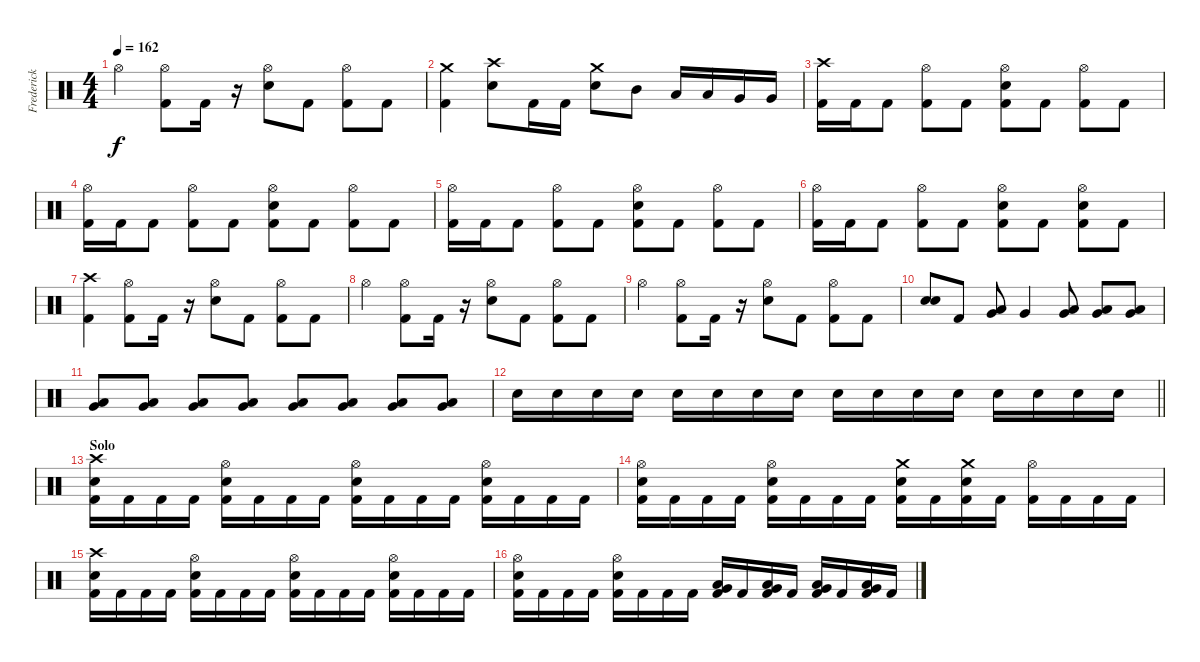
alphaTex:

\track ("Frederick Ehmke" "Frederick ") {instrument percussion}
\staff {score}
\articulation defaults
\ts (4 4)
\tempo 162
\clef neutral
\ks c "Hi-Hat (open)".4{dy f}
("Hi-Hat (open)" "Kick (hit) 2").8 "Kick (hit) 2".16 r.16 ("Electric Snare (hit)" "Hi-Hat (open)").8 "Kick (hit) 2".8 ("Hi-Hat (open)" "Kick (hit) 2").8 "Kick (hit) 2".8 |
("Crash medium (hit)" "Kick (hit) 2").4 ("Electric Snare (hit)" "Crash high (hit)").8 "Kick (hit) 2".16 "Kick (hit) 2".16 ("Electric Snare (hit)" "Crash medium (hit)").8 "Mid Tom (hit)".8 "Low Tom (hit)".16 "Low Tom (hit)".16 "Very Low Tom (hit)".16 "Very Low Tom (hit)".16 |
("Crash high (hit)" "Kick (hit) 2").16 "Kick (hit) 2".16 "Kick (hit) 2".8 ("Hi-Hat (open)" "Kick (hit) 2").8 "Kick (hit) 2".8 ("Electric Snare (hit)" "Hi-Hat (open)" "Kick (hit) 2").8 "Kick (hit) 2".8 ("Hi-Hat (open)" "Kick (hit) 2").8 "Kick (hit) 2".8 |
("Hi-Hat (open)" "Kick (hit) 2").16 "Kick (hit) 2".16 "Kick (hit) 2".8 ("Hi-Hat (open)" "Kick (hit) 2").8 "Kick (hit) 2".8 ("Electric Snare (hit)" "Hi-Hat (open)" "Kick (hit) 2").8 "Kick (hit) 2".8 ("Hi-Hat (open)" "Kick (hit) 2").8 "Kick (hit) 2".8 |
("Hi-Hat (open)" "Kick (hit) 2").16 "Kick (hit) 2".16 "Kick (hit) 2".8 ("Hi-Hat (open)" "Kick (hit) 2").8 "Kick (hit) 2".8 ("Electric Snare (hit)" "Hi-Hat (open)" "Kick (hit) 2").8 "Kick (hit) 2".8 ("Hi-Hat (open)" "Kick (hit) 2").8 "Kick (hit) 2".8 |
("Hi-Hat (open)" "Kick (hit) 2").16 "Kick (hit) 2".16 "Kick (hit) 2".8 ("Hi-Hat (open)" "Kick (hit) 2").8 "Kick (hit) 2".8 ("Electric Snare (hit)" "Hi-Hat (open)" "Kick (hit) 2").8 "Kick (hit) 2".8 ("Electric Snare (hit)" "Hi-Hat (open)" "Kick (hit) 2").8 "Kick (hit) 2".8 |
("Crash high (hit)" "Kick (hit) 2").4 ("Hi-Hat (open)" "Kick (hit) 2").8 "Kick (hit) 2".16 r.16 ("Electric Snare (hit)" "Hi-Hat (open)").8 "Kick (hit) 2".8 ("Hi-Hat (open)" "Kick (hit) 2").8 "Kick (hit) 2".8 |
"Hi-Hat (open)".4 ("Hi-Hat (open)" "Kick (hit) 2").8 "Kick (hit) 2".16 r.16 ("Electric Snare (hit)" "Hi-Hat (open)").8 "Kick (hit) 2".8 ("Hi-Hat (open)" "Kick (hit) 2").8 "Kick (hit) 2".8 |
"Hi-Hat (open)".4 ("Hi-Hat (open)" "Kick (hit) 2").8 "Kick (hit) 2".16 r.16 ("Electric Snare (hit)" "Hi-Hat (open)").8 "Kick (hit) 2".8 ("Hi-Hat (open)" "Kick (hit) 2").8 "Kick (hit) 2".8 |
("Electric Snare (hit)" "Electric Snare (hit)").8 "Kick (hit) 2".8 ("Very Low Tom (hit)" "Low Tom (hit)").8 "Very Low Tom (hit)".4 ("Very Low Tom (hit)" "Low Tom (hit)").8 ("Very Low Tom (hit)" "Low Tom (hit)").8 ("Very Low Tom (hit)" "Low Tom (hit)").8 |
("Low Floor Tom (hit)" "Very Low Tom (hit)").8 ("Low Floor Tom (hit)" "Very Low Tom (hit)").8 ("Low Floor Tom (hit)" "Very Low Tom (hit)").8 ("Low Floor Tom (hit)" "Very Low Tom (hit)").8 ("Low Floor Tom (hit)" "Very Low Tom (hit)").8 ("Low Floor Tom (hit)" "Very Low Tom (hit)").8 ("Low Floor Tom (hit)" "Very Low Tom (hit)").8 ("Low Floor Tom (hit)" "Very Low Tom (hit)").8 |
\barLineRight lightlight "Electric Snare (hit)".16 "Electric Snare (hit)".16 "Electric Snare (hit)".16 "Electric Snare (hit)".16 "Electric Snare (hit)".16 "Electric Snare (hit)".16 "Electric Snare (hit)".16 "Electric Snare (hit)".16 "Electric Snare (hit)".16 "Electric Snare (hit)".16 "Electric Snare (hit)".16 "Electric Snare (hit)".16 "Electric Snare (hit)".16 "Electric Snare (hit)".16 "Electric Snare (hit)".16 "Electric Snare (hit)".16
|
\section ("" "Solo")
("Electric Snare (hit)" "Crash high (hit)" "Kick (hit) 2").16 "Kick (hit) 2".16 "Kick (hit) 2".16 "Kick (hit) 2".16 ("Electric Snare (hit)" "Hi-Hat (open)" "Kick (hit) 2").16 "Kick (hit) 2".16 "Kick (hit) 2".16 "Kick (hit) 2".16 ("Electric Snare (hit)" "Hi-Hat (open)" "Kick (hit) 2").16 "Kick (hit) 2".16 "Kick (hit) 2".16 "Kick (hit) 2".16 ("Electric Snare (hit)" "Hi-Hat (open)" "Kick (hit) 2").16 "Kick (hit) 2".16 "Kick (hit) 2".16 "Kick (hit) 2".16 |
("Electric Snare (hit)" "Hi-Hat (open)" "Kick (hit) 2").16 "Kick (hit) 2".16 "Kick (hit) 2".16 "Kick (hit) 2".16 ("Electric Snare (hit)" "Hi-Hat (open)" "Kick (hit) 2").16 "Kick (hit) 2".16 "Kick (hit) 2".16 "Kick (hit) 2".16 ("Electric Snare (hit)" "Crash medium (hit)" "Kick (hit) 2").16 "Kick (hit) 2".16 ("Electric Snare (hit)" "Crash medium (hit)" "Kick (hit) 2").16 "Kick (hit) 2".16 ("Hi-Hat (open)" "Kick (hit) 2").16 "Kick (hit) 2".16 "Kick (hit) 2".16 "Kick (hit) 2".16 |
("Electric Snare (hit)" "Crash high (hit)" "Kick (hit) 2").16 "Kick (hit) 2".16 "Kick (hit) 2".16 "Kick (hit) 2".16 ("Electric Snare (hit)" "Hi-Hat (open)" "Kick (hit) 2").16 "Kick (hit) 2".16 "Kick (hit) 2".16 "Kick (hit) 2".16 ("Electric Snare (hit)" "Hi-Hat (open)" "Kick (hit) 2").16 "Kick (hit) 2".16 "Kick (hit) 2".16 "Kick (hit) 2".16 ("Electric Snare (hit)" "Hi-Hat (open)" "Kick (hit) 2").16 "Kick (hit) 2".16 "Kick (hit) 2".16 "Kick (hit) 2".16 |
("Electric Snare (hit)" "Hi-Hat (open)" "Kick (hit) 2").16 "Kick (hit) 2".16 "Kick (hit) 2".16 "Kick (hit) 2".16 ("Electric Snare (hit)" "Hi-Hat (open)" "Kick (hit) 2").16 "Kick (hit) 2".16 "Kick (hit) 2".16 "Kick (hit) 2".16 ("Low Tom (hit)" "Very Low Tom (hit)" "Kick (hit) 2").16 "Kick (hit) 2".16 ("Low Tom (hit)" "Very Low Tom (hit)" "Kick (hit) 2").16 "Kick (hit) 2".16 ("Very Low Tom (hit)" "Low Floor Tom (hit)" "Kick (hit) 2").16 "Kick (hit) 2".16 ("Very Low Tom (hit)" "Low Floor Tom (hit)" "Kick (hit) 2").16 "Kick (hit) 2".16
